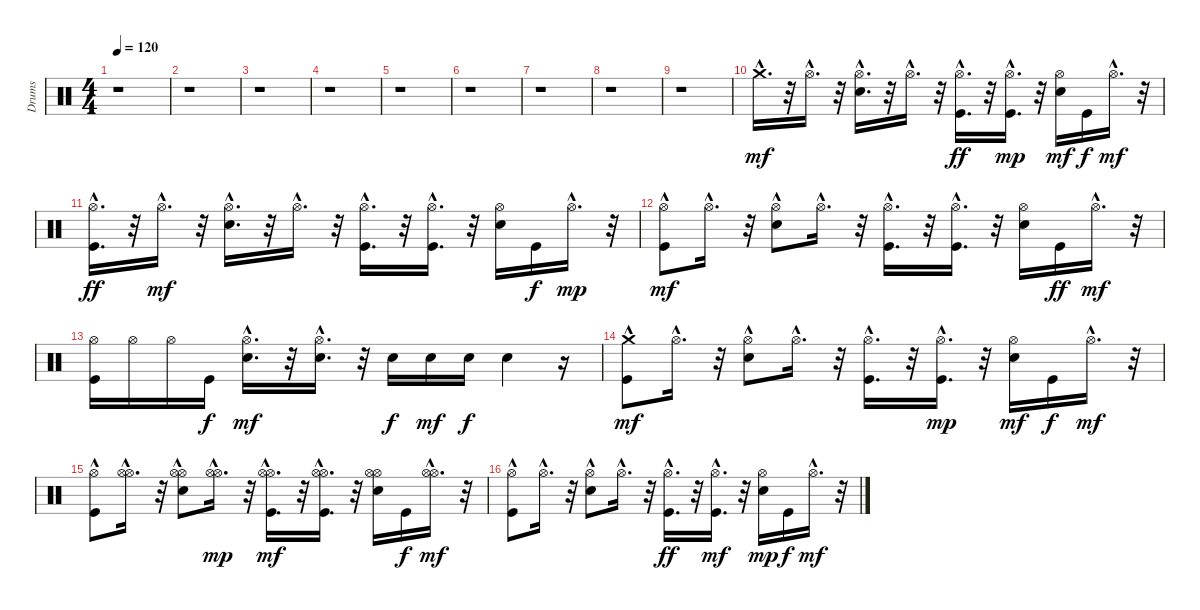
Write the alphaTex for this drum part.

\track ("Drums" "Drums") {instrument percussion}
\staff {score}
\articulation defaults
\ts (4 4)
\tempo 120
\clef neutral
\ks c
r.1{dy mf} |
r.1 |
r.1 |
r.1 |
r.1 |
r.1 |
r.1 |
r.1 |
r.1 |
"Crash medium (hit)"{hac}.16{d} r.32 "Hi-Hat (open)"{hac}.16{d} r.32 ("Hi-Hat (open)"{hac} "Electric Snare (hit)"{hac}).16{d} r.32 "Hi-Hat (open)"{hac}.16{d} r.32 ("Hi-Hat (open)"{hac} "Kick (hit)"{hac}).16{d dy ff} r.32 ("Hi-Hat (open)"{hac} "Kick (hit)"{hac}).16{d dy mp} r.32 ("Hi-Hat (open)" "Electric Snare (hit)").16{dy mf} "Kick (hit)".16{dy f} "Hi-Hat (open)"{hac}.16{d dy mf} r.32 |
("Hi-Hat (open)"{hac} "Kick (hit)"{hac}).16{d dy ff} r.32 "Hi-Hat (open)"{hac}.16{d dy mf} r.32 ("Hi-Hat (open)"{hac} "Electric Snare (hit)"{hac}).16{d} r.32 "Hi-Hat (open)"{hac}.16{d} r.32 ("Hi-Hat (open)"{hac} "Kick (hit)"{hac}).16{d} r.32 ("Hi-Hat (open)"{hac} "Kick (hit)"{hac}).16{d} r.32 ("Hi-Hat (open)" "Electric Snare (hit)").16 "Kick (hit)".16{dy f} "Hi-Hat (open)"{hac}.16{d dy mp} r.32 |
("Hi-Hat (open)"{hac} "Kick (hit)"{hac}).8{dy mf} "Hi-Hat (open)"{hac}.16{d} r.32 ("Hi-Hat (open)"{hac} "Electric Snare (hit)"{hac}).8 "Hi-Hat (open)"{hac}.16{d} r.32 ("Hi-Hat (open)"{hac} "Kick (hit)"{hac}).16{d} r.32 ("Hi-Hat (open)"{hac} "Kick (hit)"{hac}).16{d} r.32 ("Hi-Hat (open)" "Electric Snare (hit)").16 "Kick (hit)".16{dy ff} "Hi-Hat (open)"{hac}.16{d dy mf} r.32 |
("Hi-Hat (open)" "Kick (hit)").16 "Hi-Hat (open)".16 "Hi-Hat (open)".16 "Kick (hit)".16{dy f} ("Hi-Hat (open)"{hac} "Electric Snare (hit)"{hac}).16{d dy mf} r.32 ("Hi-Hat (open)"{hac} "Electric Snare (hit)"{hac}).16{d} r.32 "Electric Snare (hit)".16{dy f} "Electric Snare (hit)".16{dy mf} "Electric Snare (hit)".16{dy f} "Electric Snare (hit)".4 r.16 |
("Kick (hit)"{hac} "Crash medium (hit)"{hac}).8{dy mf} "Hi-Hat (open)"{hac}.16{d} r.32 ("Hi-Hat (open)"{hac} "Electric Snare (hit)").8 "Hi-Hat (open)"{hac}.16{d} r.32 ("Hi-Hat (open)"{hac} "Kick (hit)"{hac}).16{d} r.32 ("Hi-Hat (open)"{hac} "Kick (hit)"{hac}).16{d dy mp} r.32 ("Hi-Hat (open)" "Electric Snare (hit)").16{dy mf} "Kick (hit)".16{dy f} "Hi-Hat (open)"{hac}.16{d dy mf} r.32 |
("Hi-Hat (open)"{hac} "Kick (hit)"{hac}).8 ("Hi-Hat (open)"{hac} "Hi-Hat (open)"{hac}).16{d} r.32 ("Hi-Hat (open)"{hac} "Hi-Hat (open)"{hac} "Electric Snare (hit)"{hac}).8 ("Hi-Hat (open)"{hac} "Hi-Hat (open)"{hac}).16{d dy mp} r.32 ("Hi-Hat (open)"{hac} "Hi-Hat (open)"{hac} "Kick (hit)"{hac}).16{d dy mf} r.32 ("Hi-Hat (open)"{hac} "Hi-Hat (open)"{hac} "Kick (hit)"{hac}).16{d} r.32 ("Hi-Hat (open)" "Hi-Hat (open)" "Electric Snare (hit)").16 "Kick (hit)".16{dy f} ("Hi-Hat (open)"{hac} "Hi-Hat (open)"{hac}).16{d dy mf} r.32 |
("Hi-Hat (open)"{hac} "Kick (hit)"{hac}).8 "Hi-Hat (open)"{hac}.16{d} r.32 ("Hi-Hat (open)"{hac} "Electric Snare (hit)"{hac}).8 "Hi-Hat (open)"{hac}.16{d} r.32 ("Hi-Hat (open)"{hac} "Kick (hit)"{hac}).16{d dy ff} r.32 ("Hi-Hat (open)"{hac} "Kick (hit)"{hac}).16{d dy mf} r.32 ("Hi-Hat (open)" "Electric Snare (hit)").16{dy mp} "Kick (hit)".16{dy f} "Hi-Hat (open)"{hac}.16{d dy mf} r.32
